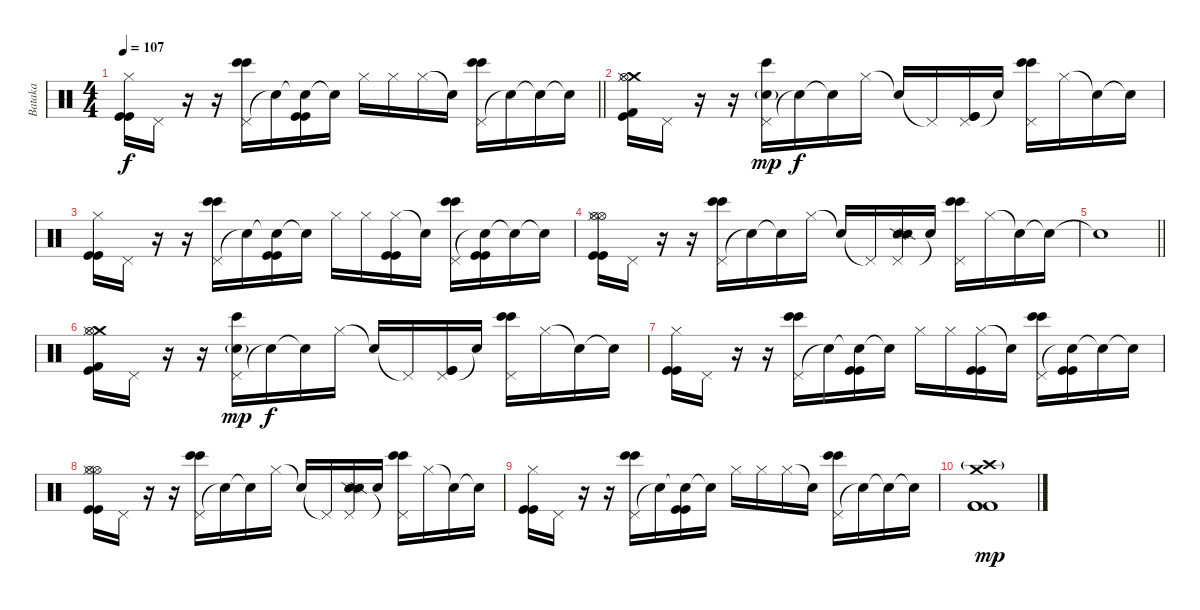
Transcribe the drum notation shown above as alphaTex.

\track ("Bataka" "Bataka") {instrument percussion}
\staff {score}
\articulation defaults
\ts (4 4)
\tempo 107
\clef neutral
\barLineRight lightlight
\ks c
("Hi-Hat (closed)" "Kick (hit)" "Kick (hit)").16{dy f} "Pedal Hi-Hat (hit)".16 r.16 r.16 ("Pedal Hi-Hat (hit)" "Bongo High (hit)" "Bongo High (hit)").16 "Snare (hit)"{t}.16 ("Snare (hit)"{t} "Kick (hit)" "Kick (hit)").16 "Snare (hit)"{t}.16 "Hi-Hat (closed)".16 "Hi-Hat (closed)".16 "Hi-Hat (closed)".16 "Snare (hit)"{t}.16 ("Pedal Hi-Hat (hit)" "Bongo High (hit)" "Bongo High (hit)").16 "Snare (hit)"{t}.16 "Snare (hit)"{t}.16 "Snare (hit)"{t}.16 |
("Crash medium (hit)" "Hi-Hat (open)" "Hi-Hat (closed)" "Kick (hit)" "Kick (hit) 2").16 "Pedal Hi-Hat (hit)".16 r.16 r.16 ("Pedal Hi-Hat (hit)" "Bongo High (hit)" "Electric Snare (hit)"{g}).16{dy mp} "Snare (hit)"{t}.16{dy f} "Snare (hit)"{t}.16 "Hi-Hat (closed)".16 "Snare (hit)"{t}.16 "Pedal Hi-Hat (hit)"{t}.16 ("Pedal Hi-Hat (hit)" "Kick (hit)" "Kick (hit)").16 "Snare (hit)"{t}.16 ("Pedal Hi-Hat (hit)" "Bongo High (hit)" "Bongo High (hit)").16 "Hi-Hat (closed)".16 "Snare (hit)"{t}.16 "Snare (hit)"{t}.16 |
("Hi-Hat (closed)" "Kick (hit)" "Kick (hit)").16 "Pedal Hi-Hat (hit)".16 r.16 r.16 ("Pedal Hi-Hat (hit)" "Bongo High (hit)" "Bongo High (hit)").16 "Snare (hit)"{t}.16 ("Snare (hit)"{t} "Kick (hit)" "Kick (hit)").16 "Snare (hit)"{t}.16 "Hi-Hat (closed)".16 "Hi-Hat (closed)".16 ("Hi-Hat (closed)" "Kick (hit)" "Kick (hit)").16 "Snare (hit)"{t}.16 ("Pedal Hi-Hat (hit)" "Bongo High (hit)" "Bongo High (hit)").16 ("Snare (hit)"{t} "Kick (hit)" "Kick (hit)").16 "Snare (hit)"{t}.16 "Snare (hit)"{t}.16 |
("Hi-Hat (open)" "Hi-Hat (open)" "Hi-Hat (closed)" "Kick (hit)" "Kick (hit)").16 "Pedal Hi-Hat (hit)".16 r.16 r.16 ("Pedal Hi-Hat (hit)" "Bongo High (hit)" "Bongo High (hit)").16 "Snare (hit)"{t}.16 "Snare (hit)"{t}.16 "Hi-Hat (closed)".16 "Snare (hit)"{t}.16 "Pedal Hi-Hat (hit)"{t}.16 ("Pedal Hi-Hat (hit)" "Snare (side stick) 2" "Snare (side stick) 2").16 "Snare (hit)"{t}.16 ("Pedal Hi-Hat (hit)" "Bongo High (hit)" "Bongo High (hit)").16 "Hi-Hat (closed)".16 "Snare (hit)"{t}.16 "Snare (hit)"{t}.16 |
\barLineRight lightlight "Snare (hit)"{t}.1
|
("Crash medium (hit)" "Hi-Hat (open)" "Hi-Hat (closed)" "Kick (hit)" "Kick (hit) 2").16 "Pedal Hi-Hat (hit)".16 r.16 r.16 ("Pedal Hi-Hat (hit)" "Bongo High (hit)" "Electric Snare (hit)"{g}).16{dy mp} "Snare (hit)"{t}.16{dy f} "Snare (hit)"{t}.16 "Hi-Hat (closed)".16 "Snare (hit)"{t}.16 "Pedal Hi-Hat (hit)"{t}.16 ("Pedal Hi-Hat (hit)" "Kick (hit)" "Kick (hit)").16 "Snare (hit)"{t}.16 ("Pedal Hi-Hat (hit)" "Bongo High (hit)" "Bongo High (hit)").16 "Hi-Hat (closed)".16 "Snare (hit)"{t}.16 "Snare (hit)"{t}.16 |
("Hi-Hat (closed)" "Kick (hit)" "Kick (hit)").16 "Pedal Hi-Hat (hit)".16 r.16 r.16 ("Pedal Hi-Hat (hit)" "Bongo High (hit)" "Bongo High (hit)").16 "Snare (hit)"{t}.16 ("Snare (hit)"{t} "Kick (hit)" "Kick (hit)").16 "Snare (hit)"{t}.16 "Hi-Hat (closed)".16 "Hi-Hat (closed)".16 ("Hi-Hat (closed)" "Kick (hit)" "Kick (hit)").16 "Snare (hit)"{t}.16 ("Pedal Hi-Hat (hit)" "Bongo High (hit)" "Bongo High (hit)").16 ("Snare (hit)"{t} "Kick (hit)" "Kick (hit)").16 "Snare (hit)"{t}.16 "Snare (hit)"{t}.16 |
("Hi-Hat (open)" "Hi-Hat (open)" "Hi-Hat (closed)" "Kick (hit)" "Kick (hit)").16 "Pedal Hi-Hat (hit)".16 r.16 r.16 ("Pedal Hi-Hat (hit)" "Bongo High (hit)" "Bongo High (hit)").16 "Snare (hit)"{t}.16 "Snare (hit)"{t}.16 "Hi-Hat (closed)".16 "Snare (hit)"{t}.16 "Pedal Hi-Hat (hit)"{t}.16 ("Pedal Hi-Hat (hit)" "Snare (side stick) 2" "Snare (side stick) 2").16 "Snare (hit)"{t}.16 ("Pedal Hi-Hat (hit)" "Bongo High (hit)" "Bongo High (hit)").16 "Hi-Hat (closed)".16 "Snare (hit)"{t}.16 "Snare (hit)"{t}.16 |
("Hi-Hat (closed)" "Kick (hit)" "Kick (hit)").16 "Pedal Hi-Hat (hit)".16 r.16 r.16 ("Pedal Hi-Hat (hit)" "Bongo High (hit)" "Bongo High (hit)").16 "Snare (hit)"{t}.16 ("Snare (hit)"{t} "Kick (hit)" "Kick (hit)").16 "Snare (hit)"{t}.16 "Hi-Hat (closed)".16 "Hi-Hat (closed)".16 "Hi-Hat (closed)".16 "Snare (hit)"{t}.16 ("Pedal Hi-Hat (hit)" "Bongo High (hit)" "Bongo High (hit)").16 "Snare (hit)"{t}.16 "Snare (hit)"{t}.16 "Snare (hit)"{t}.16 |
("Crash medium (hit)" "Crash high (hit)"{g} "Kick (hit) 2" "Kick (hit) 2" "Kick (hit) 2").1{dy mp}
